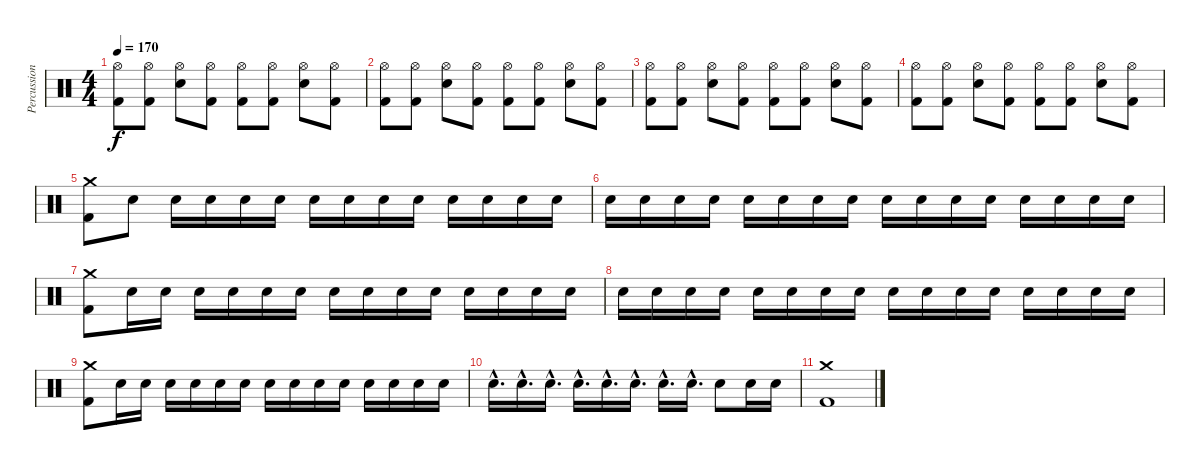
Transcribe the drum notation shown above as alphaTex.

\track ("Percussion" "Percussion") {instrument percussion}
\staff {score}
\articulation defaults
\ts (4 4)
\tempo 170
\clef neutral
\ks c
("Hi-Hat (open)" "Kick (hit) 2").8{dy f} ("Hi-Hat (open)" "Kick (hit) 2").8 ("Hi-Hat (open)" "Snare (hit) 2").8 ("Hi-Hat (open)" "Kick (hit) 2").8 ("Hi-Hat (open)" "Kick (hit) 2").8 ("Hi-Hat (open)" "Kick (hit) 2").8 ("Hi-Hat (open)" "Snare (hit) 2").8 ("Hi-Hat (open)" "Kick (hit) 2").8 |
("Hi-Hat (open)" "Kick (hit) 2").8 ("Hi-Hat (open)" "Kick (hit) 2").8 ("Hi-Hat (open)" "Snare (hit) 2").8 ("Hi-Hat (open)" "Kick (hit) 2").8 ("Hi-Hat (open)" "Kick (hit) 2").8 ("Hi-Hat (open)" "Kick (hit) 2").8 ("Hi-Hat (open)" "Snare (hit) 2").8 ("Hi-Hat (open)" "Kick (hit) 2").8 |
("Hi-Hat (open)" "Kick (hit) 2").8 ("Hi-Hat (open)" "Kick (hit) 2").8 ("Hi-Hat (open)" "Snare (hit) 2").8 ("Hi-Hat (open)" "Kick (hit) 2").8 ("Hi-Hat (open)" "Kick (hit) 2").8 ("Hi-Hat (open)" "Kick (hit) 2").8 ("Hi-Hat (open)" "Snare (hit) 2").8 ("Hi-Hat (open)" "Kick (hit) 2").8 |
("Hi-Hat (open)" "Kick (hit) 2").8 ("Hi-Hat (open)" "Kick (hit) 2").8 ("Hi-Hat (open)" "Snare (hit) 2").8 ("Hi-Hat (open)" "Kick (hit) 2").8 ("Hi-Hat (open)" "Kick (hit) 2").8 ("Hi-Hat (open)" "Kick (hit) 2").8 ("Hi-Hat (open)" "Snare (hit) 2").8 ("Hi-Hat (open)" "Kick (hit) 2").8 |
("Crash medium (hit)" "Kick (hit) 2").8 "Snare (hit) 2".8 "Snare (hit) 2".16 "Snare (hit) 2".16 "Snare (hit) 2".16 "Snare (hit) 2".16 "Snare (hit) 2".16 "Snare (hit) 2".16 "Snare (hit) 2".16 "Snare (hit) 2".16 "Snare (hit) 2".16 "Snare (hit) 2".16 "Snare (hit) 2".16 "Snare (hit) 2".16 |
"Snare (hit) 2".16 "Snare (hit) 2".16 "Snare (hit) 2".16 "Snare (hit) 2".16 "Snare (hit) 2".16 "Snare (hit) 2".16 "Snare (hit) 2".16 "Snare (hit) 2".16 "Snare (hit) 2".16 "Snare (hit) 2".16 "Snare (hit) 2".16 "Snare (hit) 2".16 "Snare (hit) 2".16 "Snare (hit) 2".16 "Snare (hit) 2".16 "Snare (hit) 2".16 |
("Crash medium (hit)" "Kick (hit) 2").8 "Snare (hit) 2".16 "Snare (hit) 2".16 "Snare (hit) 2".16 "Snare (hit) 2".16 "Snare (hit) 2".16 "Snare (hit) 2".16 "Snare (hit) 2".16 "Snare (hit) 2".16 "Snare (hit) 2".16 "Snare (hit) 2".16 "Snare (hit) 2".16 "Snare (hit) 2".16 "Snare (hit) 2".16 "Snare (hit) 2".16 |
"Snare (hit) 2".16 "Snare (hit) 2".16 "Snare (hit) 2".16 "Snare (hit) 2".16 "Snare (hit) 2".16 "Snare (hit) 2".16 "Snare (hit) 2".16 "Snare (hit) 2".16 "Snare (hit) 2".16 "Snare (hit) 2".16 "Snare (hit) 2".16 "Snare (hit) 2".16 "Snare (hit) 2".16 "Snare (hit) 2".16 "Snare (hit) 2".16 "Snare (hit) 2".16 |
("Crash medium (hit)" "Kick (hit) 2").8 "Snare (hit) 2".16 "Snare (hit) 2".16 "Snare (hit) 2".16 "Snare (hit) 2".16 "Snare (hit) 2".16 "Snare (hit) 2".16 "Snare (hit) 2".16 "Snare (hit) 2".16 "Snare (hit) 2".16 "Snare (hit) 2".16 "Snare (hit) 2".16 "Snare (hit) 2".16 "Snare (hit) 2".16 "Snare (hit) 2".16 |
"Snare (hit) 2"{hac}.16{d} "Snare (hit) 2"{hac}.16{d} "Snare (hit) 2"{hac}.16{d} "Snare (hit) 2"{hac}.16{d} "Snare (hit) 2"{hac}.16{d} "Snare (hit) 2"{hac}.16{d} "Snare (hit) 2"{hac}.16{d} "Snare (hit) 2"{hac}.16{d} "Snare (hit) 2".8 "Snare (hit) 2".16 "Snare (hit) 2".16 |
("Crash medium (hit)" "Kick (hit) 2").1
